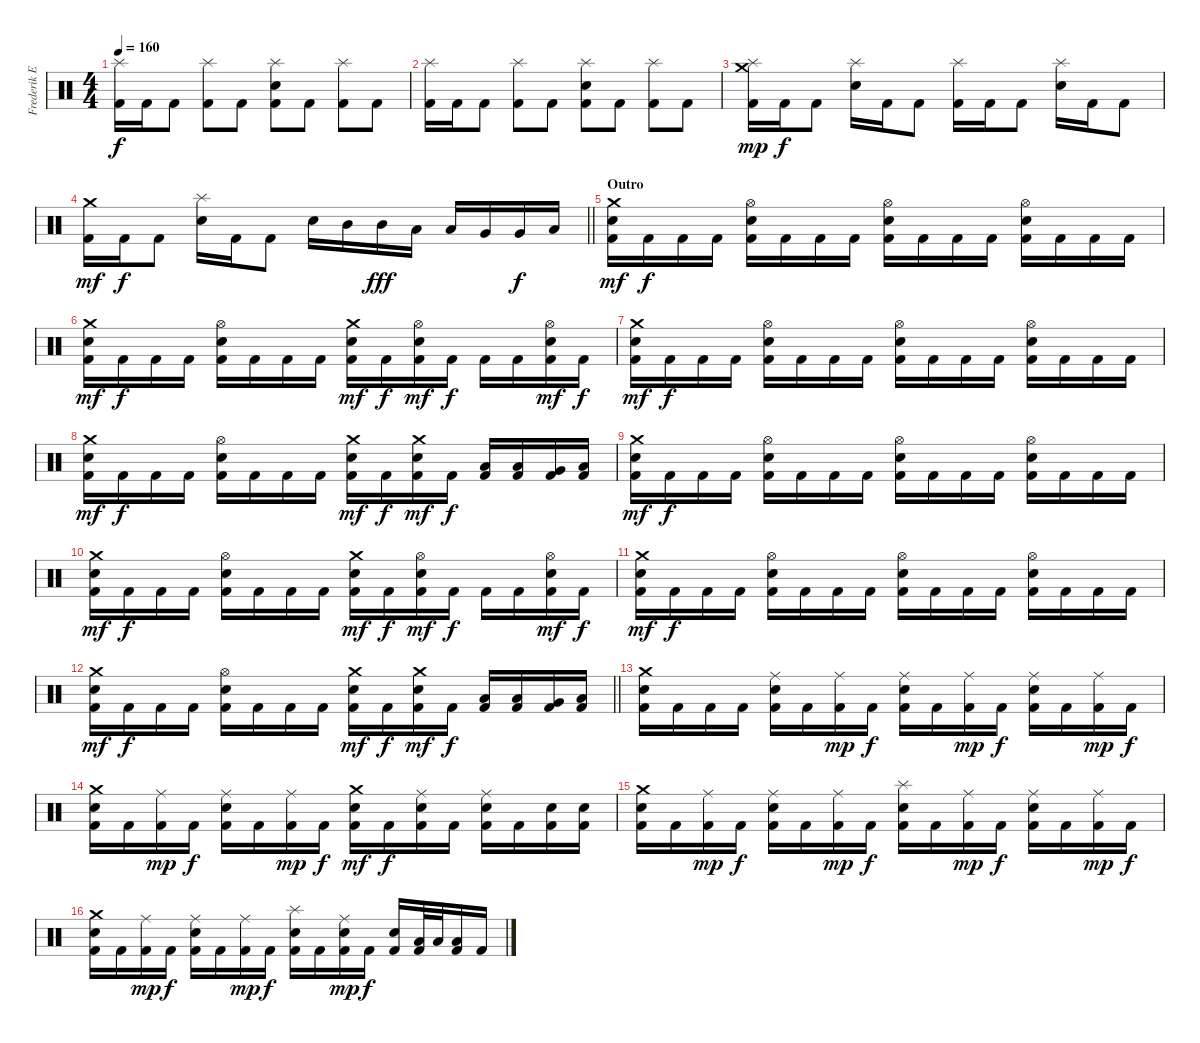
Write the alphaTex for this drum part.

\track ("Frederik Ehmke" "Frederik E") {instrument percussion}
\staff {score}
\articulation defaults
\ts (4 4)
\tempo 160
\clef neutral
\ks c
("Splash (hit)" "Kick (hit) 2").16{dy f} "Kick (hit) 2".16 "Kick (hit) 2".8 ("Splash (hit)" "Kick (hit) 2").8 "Kick (hit) 2".8 ("Splash (hit)" "Electric Snare (hit)" "Kick (hit) 2").8 "Kick (hit) 2".8 ("Splash (hit)" "Kick (hit) 2").8 "Kick (hit) 2".8 |
("Splash (hit)" "Kick (hit) 2").16 "Kick (hit) 2".16 "Kick (hit) 2".8 ("Splash (hit)" "Kick (hit) 2").8 "Kick (hit) 2".8 ("Splash (hit)" "Electric Snare (hit)" "Kick (hit) 2").8 "Kick (hit) 2".8 ("Splash (hit)" "Kick (hit) 2").8 "Kick (hit) 2".8 |
("Splash (hit)" "Crash medium (hit)" "Kick (hit) 2").16{dy mp} "Kick (hit) 2".16{dy f} "Kick (hit) 2".8 ("Splash (hit)" "Electric Snare (hit)").16 "Kick (hit) 2".16 "Kick (hit) 2".8 ("Splash (hit)" "Kick (hit) 2").16 "Kick (hit) 2".16 "Kick (hit) 2".8 ("Splash (hit)" "Electric Snare (hit)").16 "Kick (hit) 2".16 "Kick (hit) 2".8 |
\barLineRight lightlight
("Crash medium (hit)" "Kick (hit) 2").16{dy mf} "Kick (hit) 2".16{dy f} "Kick (hit) 2".8 ("Splash (hit)" "Electric Snare (hit)").16 "Kick (hit) 2".16 "Kick (hit) 2".8 "Electric Snare (hit)".16 "Mid Tom (hit)".16 "Mid Tom (hit)".16{dy fff} "Low Tom (hit)".16 "Low Tom (hit)".16 "Very Low Tom (hit)".16 "Very Low Tom (hit)".16{dy f} "Low Floor Tom (hit)".16 |
\section ("" "Outro")
("Crash medium (hit)" "Electric Snare (hit)" "Kick (hit) 2").16{dy mf} "Kick (hit) 2".16{dy f} "Kick (hit) 2".16 "Kick (hit) 2".16 ("Hi-Hat (open)" "Electric Snare (hit)" "Kick (hit) 2").16 "Kick (hit) 2".16 "Kick (hit) 2".16 "Kick (hit) 2".16 ("Hi-Hat (open)" "Electric Snare (hit)" "Kick (hit) 2").16 "Kick (hit) 2".16 "Kick (hit) 2".16 "Kick (hit) 2".16 ("Hi-Hat (open)" "Electric Snare (hit)" "Kick (hit) 2").16 "Kick (hit) 2".16 "Kick (hit) 2".16 "Kick (hit) 2".16 |
("Crash medium (hit)" "Electric Snare (hit)" "Kick (hit) 2").16{dy mf} "Kick (hit) 2".16{dy f} "Kick (hit) 2".16 "Kick (hit) 2".16 ("Hi-Hat (open)" "Electric Snare (hit)" "Kick (hit) 2").16 "Kick (hit) 2".16 "Kick (hit) 2".16 "Kick (hit) 2".16 ("Crash medium (hit)" "Electric Snare (hit)" "Kick (hit) 2").16{dy mf} "Kick (hit) 2".16{dy f} ("Hi-Hat (open)" "Electric Snare (hit)" "Kick (hit) 2").16{dy mf} "Kick (hit) 2".16{dy f} "Kick (hit) 2".16 "Kick (hit) 2".16 ("Hi-Hat (open)" "Electric Snare (hit)" "Kick (hit) 2").16{dy mf} "Kick (hit) 2".16{dy f} |
("Crash medium (hit)" "Electric Snare (hit)" "Kick (hit) 2").16{dy mf} "Kick (hit) 2".16{dy f} "Kick (hit) 2".16 "Kick (hit) 2".16 ("Hi-Hat (open)" "Electric Snare (hit)" "Kick (hit) 2").16 "Kick (hit) 2".16 "Kick (hit) 2".16 "Kick (hit) 2".16 ("Hi-Hat (open)" "Electric Snare (hit)" "Kick (hit) 2").16 "Kick (hit) 2".16 "Kick (hit) 2".16 "Kick (hit) 2".16 ("Hi-Hat (open)" "Electric Snare (hit)" "Kick (hit) 2").16 "Kick (hit) 2".16 "Kick (hit) 2".16 "Kick (hit) 2".16 |
("Crash medium (hit)" "Electric Snare (hit)" "Kick (hit) 2").16{dy mf} "Kick (hit) 2".16{dy f} "Kick (hit) 2".16 "Kick (hit) 2".16 ("Hi-Hat (open)" "Electric Snare (hit)" "Kick (hit) 2").16 "Kick (hit) 2".16 "Kick (hit) 2".16 "Kick (hit) 2".16 ("Crash medium (hit)" "Electric Snare (hit)" "Kick (hit) 2").16{dy mf} "Kick (hit) 2".16{dy f} ("Crash medium (hit)" "Electric Snare (hit)" "Kick (hit) 2").16{dy mf} "Kick (hit) 2".16{dy f} ("Low Tom (hit)" "Kick (hit) 2").16 ("Low Tom (hit)" "Kick (hit) 2").16 ("Very Low Tom (hit)" "Kick (hit) 2").16 ("Low Floor Tom (hit)" "Kick (hit) 2").16 |
("Crash medium (hit)" "Electric Snare (hit)" "Kick (hit) 2").16{dy mf} "Kick (hit) 2".16{dy f} "Kick (hit) 2".16 "Kick (hit) 2".16 ("Hi-Hat (open)" "Electric Snare (hit)" "Kick (hit) 2").16 "Kick (hit) 2".16 "Kick (hit) 2".16 "Kick (hit) 2".16 ("Hi-Hat (open)" "Electric Snare (hit)" "Kick (hit) 2").16 "Kick (hit) 2".16 "Kick (hit) 2".16 "Kick (hit) 2".16 ("Hi-Hat (open)" "Electric Snare (hit)" "Kick (hit) 2").16 "Kick (hit) 2".16 "Kick (hit) 2".16 "Kick (hit) 2".16 |
("Crash medium (hit)" "Electric Snare (hit)" "Kick (hit) 2").16{dy mf} "Kick (hit) 2".16{dy f} "Kick (hit) 2".16 "Kick (hit) 2".16 ("Hi-Hat (open)" "Electric Snare (hit)" "Kick (hit) 2").16 "Kick (hit) 2".16 "Kick (hit) 2".16 "Kick (hit) 2".16 ("Crash medium (hit)" "Electric Snare (hit)" "Kick (hit) 2").16{dy mf} "Kick (hit) 2".16{dy f} ("Hi-Hat (open)" "Electric Snare (hit)" "Kick (hit) 2").16{dy mf} "Kick (hit) 2".16{dy f} "Kick (hit) 2".16 "Kick (hit) 2".16 ("Hi-Hat (open)" "Electric Snare (hit)" "Kick (hit) 2").16{dy mf} "Kick (hit) 2".16{dy f} |
("Crash medium (hit)" "Electric Snare (hit)" "Kick (hit) 2").16{dy mf} "Kick (hit) 2".16{dy f} "Kick (hit) 2".16 "Kick (hit) 2".16 ("Hi-Hat (open)" "Electric Snare (hit)" "Kick (hit) 2").16 "Kick (hit) 2".16 "Kick (hit) 2".16 "Kick (hit) 2".16 ("Hi-Hat (open)" "Electric Snare (hit)" "Kick (hit) 2").16 "Kick (hit) 2".16 "Kick (hit) 2".16 "Kick (hit) 2".16 ("Hi-Hat (open)" "Electric Snare (hit)" "Kick (hit) 2").16 "Kick (hit) 2".16 "Kick (hit) 2".16 "Kick (hit) 2".16 |
\barLineRight lightlight
("Crash medium (hit)" "Electric Snare (hit)" "Kick (hit) 2").16{dy mf} "Kick (hit) 2".16{dy f} "Kick (hit) 2".16 "Kick (hit) 2".16 ("Hi-Hat (open)" "Electric Snare (hit)" "Kick (hit) 2").16 "Kick (hit) 2".16 "Kick (hit) 2".16 "Kick (hit) 2".16 ("Crash medium (hit)" "Electric Snare (hit)" "Kick (hit) 2").16{dy mf} "Kick (hit) 2".16{dy f} ("Crash medium (hit)" "Electric Snare (hit)" "Kick (hit) 2").16{dy mf} "Kick (hit) 2".16{dy f} ("Low Tom (hit)" "Kick (hit) 2").16 ("Low Tom (hit)" "Kick (hit) 2").16 ("Very Low Tom (hit)" "Kick (hit) 2").16 ("Low Floor Tom (hit)" "Kick (hit) 2").16 |
("Crash medium (hit)" "Electric Snare (hit)" "Kick (hit) 2").16 "Kick (hit) 2".16 "Kick (hit) 2".16 "Kick (hit) 2".16 ("Ride (middle)" "Electric Snare (hit)" "Kick (hit) 2").16 "Kick (hit) 2".16 ("Ride (middle)" "Kick (hit) 2").16{dy mp} "Kick (hit) 2".16{dy f} ("Ride (middle)" "Electric Snare (hit)" "Kick (hit) 2").16 "Kick (hit) 2".16 ("Ride (middle)" "Kick (hit) 2").16{dy mp} "Kick (hit) 2".16{dy f} ("Ride (middle)" "Electric Snare (hit)" "Kick (hit) 2").16 "Kick (hit) 2".16 ("Ride (middle)" "Kick (hit) 2").16{dy mp} "Kick (hit) 2".16{dy f} |
("Crash medium (hit)" "Electric Snare (hit)" "Kick (hit) 2").16 "Kick (hit) 2".16 ("Ride (middle)" "Kick (hit) 2").16{dy mp} "Kick (hit) 2".16{dy f} ("Ride (middle)" "Electric Snare (hit)" "Kick (hit) 2").16 "Kick (hit) 2".16 ("Ride (middle)" "Kick (hit) 2").16{dy mp} "Kick (hit) 2".16{dy f} ("Crash medium (hit)" "Electric Snare (hit)" "Kick (hit) 2").16{dy mf} "Kick (hit) 2".16{dy f} ("Ride (middle)" "Electric Snare (hit)" "Kick (hit) 2").16 "Kick (hit) 2".16 ("Ride (middle)" "Electric Snare (hit)" "Kick (hit) 2").16 "Kick (hit) 2".16 ("Electric Snare (hit)" "Kick (hit) 2").16 ("Electric Snare (hit)" "Kick (hit) 2").16 |
("Crash medium (hit)" "Electric Snare (hit)" "Kick (hit) 2").16 "Kick (hit) 2".16 ("Ride (middle)" "Kick (hit) 2").16{dy mp} "Kick (hit) 2".16{dy f} ("Ride (middle)" "Electric Snare (hit)" "Kick (hit) 2").16 "Kick (hit) 2".16 ("Ride (middle)" "Kick (hit) 2").16{dy mp} "Kick (hit) 2".16{dy f} ("Splash (hit)" "Electric Snare (hit)" "Kick (hit) 2").16 "Kick (hit) 2".16 ("Ride (middle)" "Kick (hit) 2").16{dy mp} "Kick (hit) 2".16{dy f} ("Ride (middle)" "Electric Snare (hit)" "Kick (hit) 2").16 "Kick (hit) 2".16 ("Ride (middle)" "Kick (hit) 2").16{dy mp} "Kick (hit) 2".16{dy f} |
("Crash medium (hit)" "Electric Snare (hit)" "Kick (hit) 2").16 "Kick (hit) 2".16 ("Ride (middle)" "Kick (hit) 2").16{dy mp} "Kick (hit) 2".16{dy f} ("Ride (middle)" "Electric Snare (hit)" "Kick (hit) 2").16 "Kick (hit) 2".16 ("Ride (middle)" "Kick (hit) 2").16{dy mp} "Kick (hit) 2".16{dy f} ("Splash (hit)" "Electric Snare (hit)" "Kick (hit) 2").16 "Kick (hit) 2".16 ("Ride (middle)" "Electric Snare (hit)" "Kick (hit) 2").16{dy mp} "Kick (hit) 2".16{dy f} ("Electric Snare (hit)" "Kick (hit) 2").16 ("Low Tom (hit)" "Kick (hit) 2").32 "Low Tom (hit)".32 ("Low Floor Tom (hit)" "Kick (hit) 2").16 "Kick (hit) 2".16
